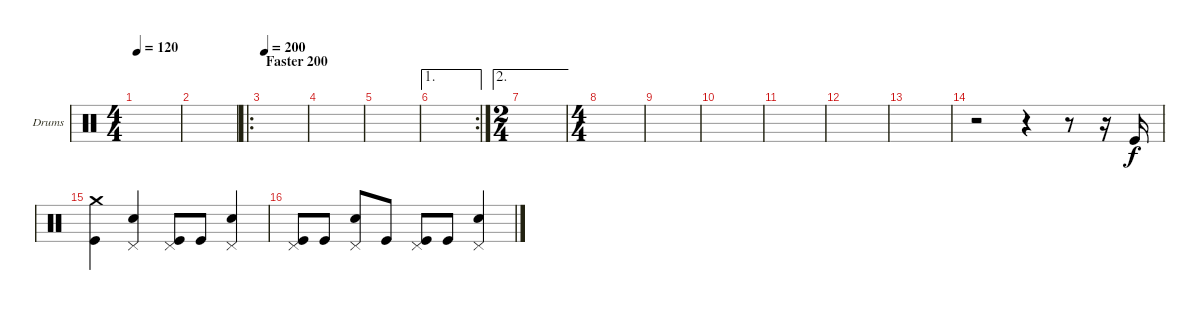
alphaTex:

\bracketExtendMode groupsimilarinstruments
\firstSystemTrackNameOrientation horizontal
\otherSystemsTrackNameOrientation horizontal
\track ("Drumkit" "Drums") {instrument percussion}
\staff {score}
\articulation defaults
\ts (4 4)
\tempo 120
\clef neutral
\ks c
|
|
\ro
\section ("" "Faster 200")
\tempo 200
|
|
|
\ae 1
\rc 2
|
\ae 2
\ts (2 4)
|
\ts (4 4)
|
|
|
|
|
|
r.2 r.4 r.8 r.16 "Kick (hit)".16 |
("Crash medium (hit)" "Kick (hit)").4 ("Pedal Hi-Hat (hit)" "Snare (hit) 2").4 ("Pedal Hi-Hat (hit)" "Kick (hit)").8 "Kick (hit)".8 ("Pedal Hi-Hat (hit)" "Snare (hit) 2").4 |
("Pedal Hi-Hat (hit)" "Kick (hit)").8 "Kick (hit)".8 ("Pedal Hi-Hat (hit)" "Snare (hit) 2").8 "Kick (hit)".8 ("Pedal Hi-Hat (hit)" "Kick (hit)").8 "Kick (hit)".8 ("Pedal Hi-Hat (hit)" "Snare (hit) 2").4
